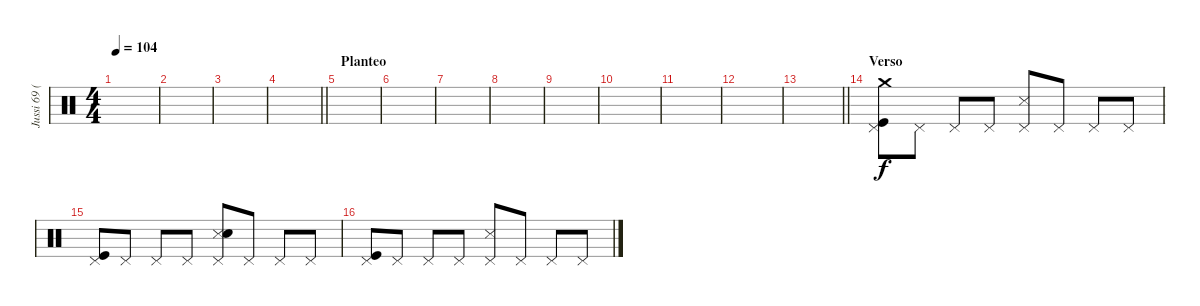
\track ("Jussi 69 (Batería)" "Jussi 69 (") {instrument percussion}
\staff {score}
\articulation defaults
\ts (4 4)
\tempo 104
\clef neutral
\ks c
|
|
|
\barLineRight lightlight
|
\section ("" "Planteo")
|
|
|
|
|
|
|
|
\barLineRight lightlight
|
\section ("" "Verso")
("Pedal Hi-Hat (hit)" "Kick (hit)" "Crash medium (hit)").8 "Pedal Hi-Hat (hit)".8 "Pedal Hi-Hat (hit)".8 "Pedal Hi-Hat (hit)".8 ("Pedal Hi-Hat (hit)" "Metronome (hit)").8 "Pedal Hi-Hat (hit)".8 "Pedal Hi-Hat (hit)".8 "Pedal Hi-Hat (hit)".8 |
("Pedal Hi-Hat (hit)" "Kick (hit)").8 "Pedal Hi-Hat (hit)".8 "Pedal Hi-Hat (hit)".8 "Pedal Hi-Hat (hit)".8 ("Pedal Hi-Hat (hit)" "Metronome (hit)" "Metronome (bell)").8 "Pedal Hi-Hat (hit)".8 "Pedal Hi-Hat (hit)".8 "Pedal Hi-Hat (hit)".8 |
("Pedal Hi-Hat (hit)" "Kick (hit)").8 "Pedal Hi-Hat (hit)".8 "Pedal Hi-Hat (hit)".8 "Pedal Hi-Hat (hit)".8 ("Pedal Hi-Hat (hit)" "Metronome (hit)").8 "Pedal Hi-Hat (hit)".8 "Pedal Hi-Hat (hit)".8 "Pedal Hi-Hat (hit)".8
